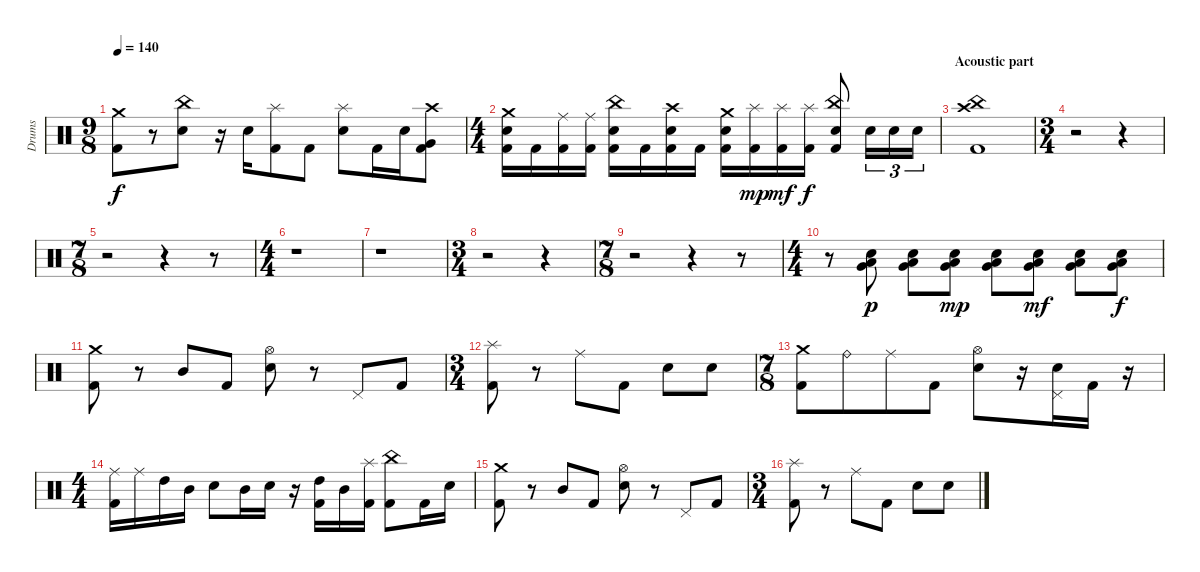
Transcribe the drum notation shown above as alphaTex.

\track ("Drums" "Drums") {instrument percussion}
\staff {score}
\articulation defaults
\ts (9 8)
\tempo 140
\clef neutral
\ks c
("Crash medium (hit)" "Kick (hit) 2").8{dy f} r.8 ("China (hit)" "Electric Snare (hit)").8 r.16 "Electric Snare (hit)".16 ("Splash (hit)" "Kick (hit) 2").8 "Kick (hit) 2".8 ("Splash (hit)" "Electric Snare (hit)").8 "Kick (hit) 2".16 "Electric Snare (hit)".16 ("Crash high (hit)" "Very Low Tom (hit)" "Kick (hit) 2").8 |
\ts (4 4)
("Crash medium (hit)" "Electric Snare (hit)" "Kick (hit) 2").16 "Kick (hit) 2".16 ("Ride (middle)" "Kick (hit) 2").16 ("Ride (middle)" "Kick (hit) 2").16 ("China (hit)" "Electric Snare (hit)" "Kick (hit) 2").16 "Kick (hit) 2".16 ("Crash high (hit)" "Electric Snare (hit)" "Kick (hit) 2").16 "Kick (hit) 2".16 ("Crash medium (hit)" "Electric Snare (hit)" "Kick (hit) 2").16 ("Splash (hit)" "Kick (hit) 2").16{dy mp} ("Splash (hit)" "Kick (hit) 2").16{dy mf} ("Splash (hit)" "Kick (hit) 2").16{dy f} ("China (hit)" "Electric Snare (hit)" "Kick (hit) 2").8 "Electric Snare (hit)".16{tu (3 2)} "Electric Snare (hit)".16{tu (3 2)} "Electric Snare (hit)".16{tu (3 2)} |
\section ("" "Acoustic part")
("China (hit)" "Crash high (hit)" "Kick (hit) 2").1 |
\ts (3 4)
r.2 r.4 |
\ts (7 8)
r.2 r.4 r.8 |
\ts (4 4)
r.1 |
r.1 |
\ts (3 4)
r.2 r.4 |
\ts (7 8)
r.2 r.4 r.8 |
\ts (4 4)
r.8 ("Low Tom (hit)" "Very Low Tom (hit)" "Electric Snare (hit)").8{dy p} ("Low Tom (hit)" "Very Low Tom (hit)" "Electric Snare (hit)").8 ("Low Tom (hit)" "Very Low Tom (hit)" "Electric Snare (hit)").8{dy mp} ("Low Tom (hit)" "Very Low Tom (hit)" "Electric Snare (hit)").8 ("Low Tom (hit)" "Very Low Tom (hit)" "Electric Snare (hit)").8{dy mf} ("Low Tom (hit)" "Very Low Tom (hit)" "Electric Snare (hit)").8 ("Low Tom (hit)" "Very Low Tom (hit)" "Electric Snare (hit)").8{dy f} |
("Crash medium (hit)" "Kick (hit) 2").8 r.8 "Mid Tom (hit)".8 "Kick (hit) 2".8 ("Hi-Hat (open)" "Electric Snare (hit)").8 r.8 "Pedal Hi-Hat (hit)".8 "Kick (hit) 2".8 |
\ts (3 4)
("Splash (hit)" "Kick (hit) 2").8 r.8 "Ride (middle)".8 "Kick (hit) 2".8 "Electric Snare (hit)".8 "Electric Snare (hit)".8 |
\ts (7 8)
("Crash medium (hit)" "Kick (hit) 2").8 "Ride (bell)".8 "Ride (middle)".8 "Kick (hit) 2".8 ("Hi-Hat (open)" "Electric Snare (hit)").8 r.16 ("Pedal Hi-Hat (hit)" "Electric Snare (hit)").16 "Kick (hit) 2".16 r.16 |
\ts (4 4)
("Ride (middle)" "Kick (hit) 2").16 "Ride (middle)".16 "High Tom (hit)".16 "Mid Tom (hit)".16 "Electric Snare (hit)".8 "Mid Tom (hit)".16 "Electric Snare (hit)".16 r.16 ("High Tom (hit)" "Kick (hit) 2").16 "Mid Tom (hit)".16 ("Splash (hit)" "Kick (hit) 2").16 ("China (hit)" "Kick (hit) 2").8 "Kick (hit) 2".16 "Electric Snare (hit)".16 |
("Crash medium (hit)" "Kick (hit) 2").8 r.8 "Mid Tom (hit)".8 "Kick (hit) 2".8 ("Hi-Hat (open)" "Electric Snare (hit)").8 r.8 "Pedal Hi-Hat (hit)".8 "Kick (hit) 2".8 |
\ts (3 4)
("Splash (hit)" "Kick (hit) 2").8 r.8 "Ride (middle)".8 "Kick (hit) 2".8 "Electric Snare (hit)".8 "Electric Snare (hit)".8
